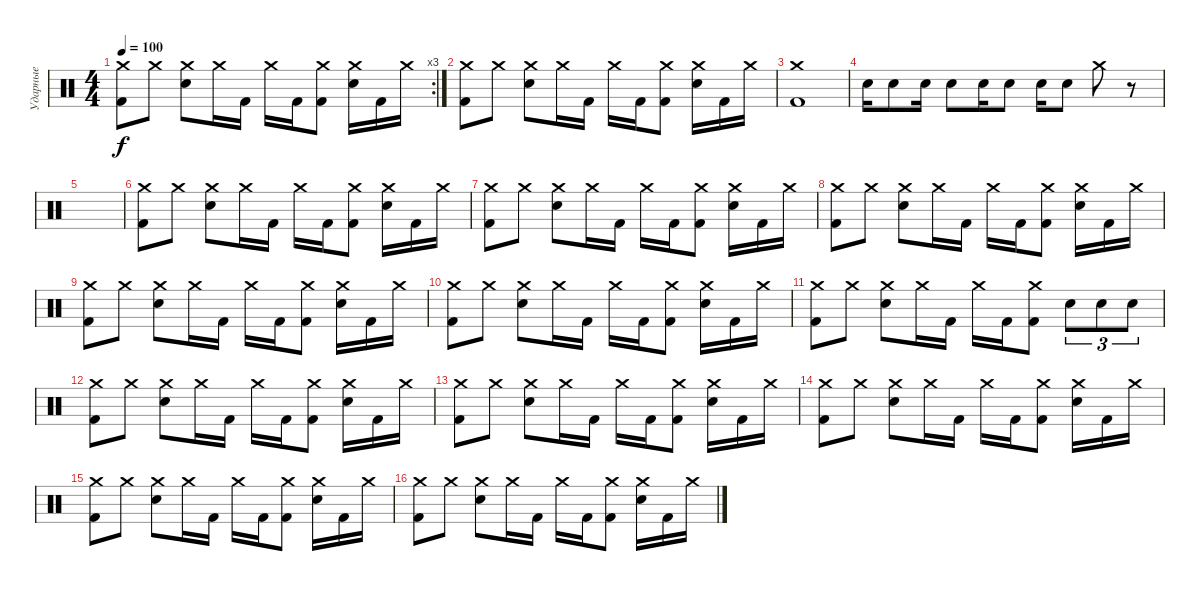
\track ("Ударные" "Ударные") {instrument percussion}
\staff {score}
\articulation defaults
\rc 3
\ts (4 4)
\tempo 100
\clef neutral
\ks c
("Crash medium (hit)" "Kick (hit) 2").8{dy f} "Crash medium (hit)".8 ("Crash medium (hit)" "Electric Snare (hit)").8 "Crash medium (hit)".16 "Kick (hit) 2".16 "Crash medium (hit)".16 "Kick (hit) 2".16 ("Crash medium (hit)" "Kick (hit) 2").8 ("Crash medium (hit)" "Electric Snare (hit)").16 "Kick (hit) 2".16 "Crash medium (hit)".16 |
("Crash medium (hit)" "Kick (hit) 2").8 "Crash medium (hit)".8 ("Crash medium (hit)" "Electric Snare (hit)").8 "Crash medium (hit)".16 "Kick (hit) 2".16 "Crash medium (hit)".16 "Kick (hit) 2".16 ("Crash medium (hit)" "Kick (hit) 2").8 ("Crash medium (hit)" "Electric Snare (hit)").16 "Kick (hit) 2".16 "Crash medium (hit)".16 |
("Crash medium (hit)" "Kick (hit) 2").1 |
"Electric Snare (hit)".16 "Electric Snare (hit)".8 "Electric Snare (hit)".16 "Electric Snare (hit)".8 "Electric Snare (hit)".16 "Electric Snare (hit)".8 "Electric Snare (hit)".16 "Electric Snare (hit)".8 "Crash medium (hit)".8 r.8 |
|
("Crash medium (hit)" "Kick (hit) 2").8 "Crash medium (hit)".8 ("Crash medium (hit)" "Electric Snare (hit)").8 "Crash medium (hit)".16 "Kick (hit) 2".16 "Crash medium (hit)".16 "Kick (hit) 2".16 ("Crash medium (hit)" "Kick (hit) 2").8 ("Crash medium (hit)" "Electric Snare (hit)").16 "Kick (hit) 2".16 "Crash medium (hit)".16 |
("Crash medium (hit)" "Kick (hit) 2").8 "Crash medium (hit)".8 ("Crash medium (hit)" "Electric Snare (hit)").8 "Crash medium (hit)".16 "Kick (hit) 2".16 "Crash medium (hit)".16 "Kick (hit) 2".16 ("Crash medium (hit)" "Kick (hit) 2").8 ("Crash medium (hit)" "Electric Snare (hit)").16 "Kick (hit) 2".16 "Crash medium (hit)".16 |
("Crash medium (hit)" "Kick (hit) 2").8 "Crash medium (hit)".8 ("Crash medium (hit)" "Electric Snare (hit)").8 "Crash medium (hit)".16 "Kick (hit) 2".16 "Crash medium (hit)".16 "Kick (hit) 2".16 ("Crash medium (hit)" "Kick (hit) 2").8 ("Crash medium (hit)" "Electric Snare (hit)").16 "Kick (hit) 2".16 "Crash medium (hit)".16 |
("Crash medium (hit)" "Kick (hit) 2").8 "Crash medium (hit)".8 ("Crash medium (hit)" "Electric Snare (hit)").8 "Crash medium (hit)".16 "Kick (hit) 2".16 "Crash medium (hit)".16 "Kick (hit) 2".16 ("Crash medium (hit)" "Kick (hit) 2").8 ("Crash medium (hit)" "Electric Snare (hit)").16 "Kick (hit) 2".16 "Crash medium (hit)".16 |
("Crash medium (hit)" "Kick (hit) 2").8 "Crash medium (hit)".8 ("Crash medium (hit)" "Electric Snare (hit)").8 "Crash medium (hit)".16 "Kick (hit) 2".16 "Crash medium (hit)".16 "Kick (hit) 2".16 ("Crash medium (hit)" "Kick (hit) 2").8 ("Crash medium (hit)" "Electric Snare (hit)").16 "Kick (hit) 2".16 "Crash medium (hit)".16 |
("Crash medium (hit)" "Kick (hit) 2").8 "Crash medium (hit)".8 ("Crash medium (hit)" "Electric Snare (hit)").8 "Crash medium (hit)".16 "Kick (hit) 2".16 "Crash medium (hit)".16 "Kick (hit) 2".16 ("Crash medium (hit)" "Kick (hit) 2").8 "Electric Snare (hit)".8{tu (3 2)} "Electric Snare (hit)".8{tu (3 2)} "Electric Snare (hit)".8{tu (3 2)} |
("Crash medium (hit)" "Kick (hit) 2").8 "Crash medium (hit)".8 ("Crash medium (hit)" "Electric Snare (hit)").8 "Crash medium (hit)".16 "Kick (hit) 2".16 "Crash medium (hit)".16 "Kick (hit) 2".16 ("Crash medium (hit)" "Kick (hit) 2").8 ("Crash medium (hit)" "Electric Snare (hit)").16 "Kick (hit) 2".16 "Crash medium (hit)".16 |
("Crash medium (hit)" "Kick (hit) 2").8 "Crash medium (hit)".8 ("Crash medium (hit)" "Electric Snare (hit)").8 "Crash medium (hit)".16 "Kick (hit) 2".16 "Crash medium (hit)".16 "Kick (hit) 2".16 ("Crash medium (hit)" "Kick (hit) 2").8 ("Crash medium (hit)" "Electric Snare (hit)").16 "Kick (hit) 2".16 "Crash medium (hit)".16 |
("Crash medium (hit)" "Kick (hit) 2").8 "Crash medium (hit)".8 ("Crash medium (hit)" "Electric Snare (hit)").8 "Crash medium (hit)".16 "Kick (hit) 2".16 "Crash medium (hit)".16 "Kick (hit) 2".16 ("Crash medium (hit)" "Kick (hit) 2").8 ("Crash medium (hit)" "Electric Snare (hit)").16 "Kick (hit) 2".16 "Crash medium (hit)".16 |
("Crash medium (hit)" "Kick (hit) 2").8 "Crash medium (hit)".8 ("Crash medium (hit)" "Electric Snare (hit)").8 "Crash medium (hit)".16 "Kick (hit) 2".16 "Crash medium (hit)".16 "Kick (hit) 2".16 ("Crash medium (hit)" "Kick (hit) 2").8 ("Crash medium (hit)" "Electric Snare (hit)").16 "Kick (hit) 2".16 "Crash medium (hit)".16 |
("Crash medium (hit)" "Kick (hit) 2").8 "Crash medium (hit)".8 ("Crash medium (hit)" "Electric Snare (hit)").8 "Crash medium (hit)".16 "Kick (hit) 2".16 "Crash medium (hit)".16 "Kick (hit) 2".16 ("Crash medium (hit)" "Kick (hit) 2").8 ("Crash medium (hit)" "Electric Snare (hit)").16 "Kick (hit) 2".16 "Crash medium (hit)".16
